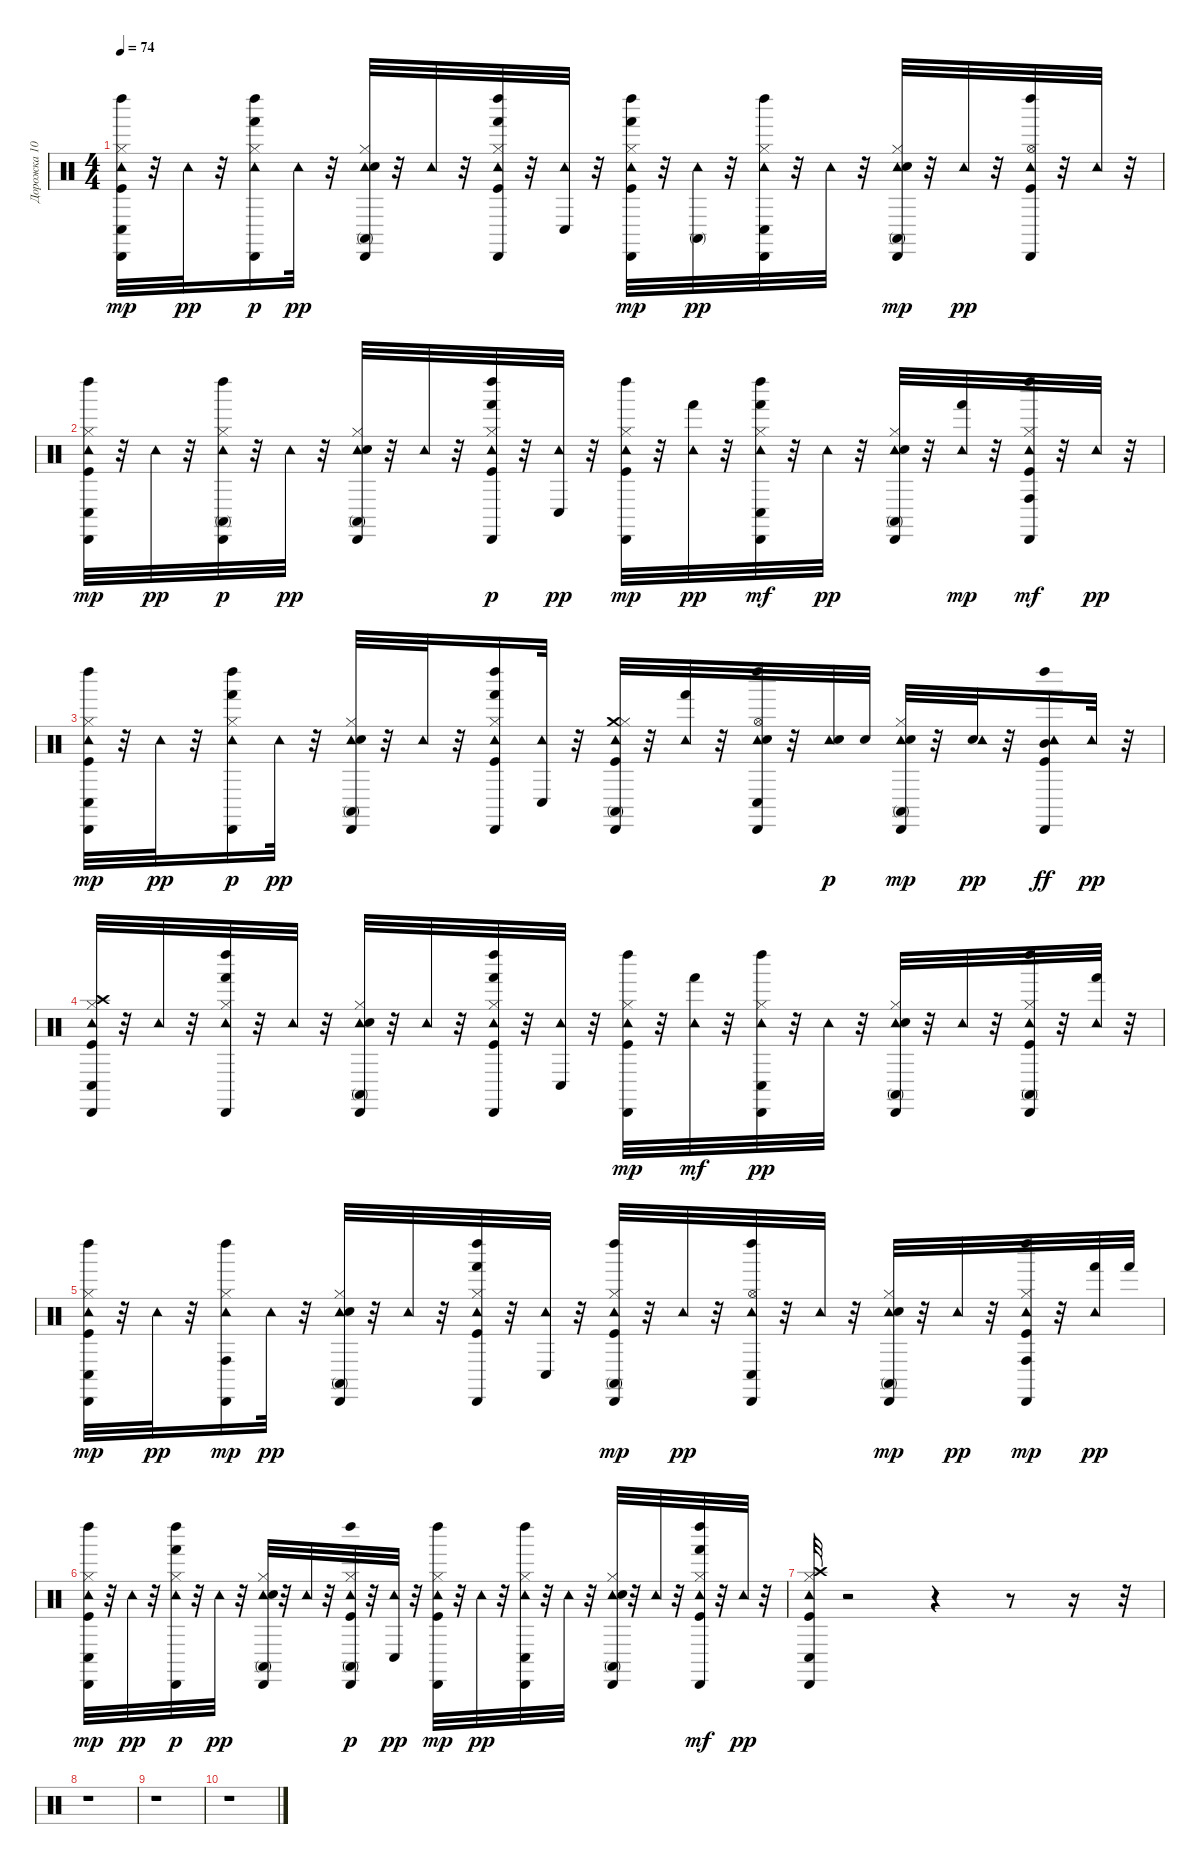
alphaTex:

\track ("Дорожка 10" "Дорожка 10") {instrument percussion}
\staff {score}
\articulation defaults
\ts (4 4)
\tempo 74
\clef neutral
\ks c
("Conga low (hit)" "Tambourine (hit)" "Kick (hit)" "Hi-Hat (closed)" "Cabasa (hit)" "Left Maraca (hit)").32{dy mp} r.32 "Tambourine (hit)".32{dy pp} r.32 ("Hi-Hat (closed)" "Tambourine (hit)" "Cabasa (hit)" "Left Maraca (hit)" "Hand (hit)").16{dy p} "Tambourine (hit)".32{dy pp} r.32 ("Tambourine (hit)" "Electric Snare (hit)" "Hi-Hat (closed)" "Conga high (mute)" "Cabasa (hit)").32 r.32 "Tambourine (hit)".32 r.32 ("Kick (hit)" "Hi-Hat (closed)" "Tambourine (hit)" "Cabasa (hit)" "Left Maraca (hit)" "Hand (hit)").32 r.32 ("Conga low (hit)" "Tambourine (hit)").32 r.32 ("Hand (hit)" "Kick (hit)" "Hi-Hat (closed)" "Tambourine (hit)" "Cabasa (hit)" "Left Maraca (hit)").32{dy mp} r.32 ("Tambourine (hit)" "Conga high (mute)").32{dy pp} r.32 ("Conga low (hit)" "Hi-Hat (closed)" "Tambourine (hit)" "Cabasa (hit)" "Left Maraca (hit)").32 r.32 "Tambourine (hit)".32 r.32 ("Tambourine (hit)" "Electric Snare (hit)" "Hi-Hat (closed)" "Cabasa (hit)" "Conga high (mute)").32{dy mp} r.32 "Tambourine (hit)".32{dy pp} r.32 ("Kick (hit)" "Hi-Hat (open)" "Tambourine (hit)" "Cabasa (hit)" "Left Maraca (hit)").32 r.32 "Tambourine (hit)".32 r.32 |
("Conga low (hit)" "Tambourine (hit)" "Kick (hit)" "Hi-Hat (closed)" "Cabasa (hit)" "Left Maraca (hit)").32{dy mp} r.32 "Tambourine (hit)".32{dy pp} r.32 ("Hi-Hat (closed)" "Tambourine (hit)" "Cabasa (hit)" "Left Maraca (hit)" "Conga high (mute)").32{dy p} r.32 "Tambourine (hit)".32{dy pp} r.32 ("Tambourine (hit)" "Electric Snare (hit)" "Hi-Hat (closed)" "Conga high (mute)" "Cabasa (hit)").32 r.32 "Tambourine (hit)".32 r.32 ("Kick (hit)" "Hi-Hat (closed)" "Tambourine (hit)" "Cabasa (hit)" "Left Maraca (hit)" "Hand (hit)").32{dy p} r.32 ("Conga low (hit)" "Tambourine (hit)").32{dy pp} r.32 ("Kick (hit)" "Hi-Hat (closed)" "Tambourine (hit)" "Cabasa (hit)" "Left Maraca (hit)").32{dy mp} r.32 ("Tambourine (hit)" "Hand (hit)").32{dy pp} r.32 ("Conga low (hit)" "Hi-Hat (closed)" "Tambourine (hit)" "Cabasa (hit)" "Left Maraca (hit)" "Hand (hit)").32{dy mf} r.32 "Tambourine (hit)".32{dy pp} r.32 ("Conga high (mute)" "Tambourine (hit)" "Electric Snare (hit)" "Hi-Hat (closed)" "Cabasa (hit)").32 r.32 ("Tambourine (hit)" "Hand (hit)").32{dy mp} r.32 ("Kick (hit)" "Hi-Hat (closed)" "Tambourine (hit)" "Cabasa (hit)" "Left Maraca (hit)" "Conga high (hit)").32{dy mf} r.32 "Tambourine (hit)".32{dy pp} r.32 |
("Conga low (hit)" "Tambourine (hit)" "Kick (hit)" "Hi-Hat (closed)" "Cabasa (hit)" "Left Maraca (hit)").32{dy mp} r.32 "Tambourine (hit)".32{dy pp} r.32 ("Hi-Hat (closed)" "Tambourine (hit)" "Cabasa (hit)" "Left Maraca (hit)" "Hand (hit)").16{dy p} "Tambourine (hit)".32{dy pp} r.32 ("Tambourine (hit)" "Electric Snare (hit)" "Hi-Hat (closed)" "Conga high (mute)" "Cabasa (hit)").32 r.32 "Tambourine (hit)".32 r.32 ("Kick (hit)" "Hi-Hat (closed)" "Tambourine (hit)" "Cabasa (hit)" "Left Maraca (hit)" "Hand (hit)").16 ("Conga low (hit)" "Tambourine (hit)").32 r.32 ("Crash medium (hit)" "Kick (hit)" "Hi-Hat (closed)" "Tambourine (hit)" "Conga high (mute)" "Cabasa (hit)").32 r.32 ("Tambourine (hit)" "Hand (hit)").32 r.32 ("Conga low (hit)" "Hi-Hat (open)" "Tambourine (hit)" "Cabasa (hit)" "Left Maraca (hit)" "Electric Snare (hit)").32 r.32 ("Tambourine (hit)" "Electric Snare (hit)").32{dy p} "Electric Snare (hit)".32 ("Tambourine (hit)" "Electric Snare (hit)" "Hi-Hat (closed)" "Cabasa (hit)" "Conga high (mute)").32{dy mp} r.32 ("Electric Snare (hit)" "Tambourine (hit)").32{dy pp} r.32 ("Kick (hit)" "Tambourine (hit)" "Cabasa (hit)" "Left Maraca (hit)" "Mid Tom (hit)").16{dy ff} "Tambourine (hit)".32{dy pp} r.32 |
("Crash high (hit)" "Conga low (hit)" "Tambourine (hit)" "Kick (hit)" "Hi-Hat (closed)" "Cabasa (hit)").32 r.32 "Tambourine (hit)".32 r.32 ("Hand (hit)" "Hi-Hat (closed)" "Tambourine (hit)" "Cabasa (hit)" "Left Maraca (hit)").32 r.32 "Tambourine (hit)".32 r.32 ("Conga high (mute)" "Tambourine (hit)" "Electric Snare (hit)" "Hi-Hat (closed)" "Cabasa (hit)").32 r.32 "Tambourine (hit)".32 r.32 ("Hand (hit)" "Kick (hit)" "Hi-Hat (closed)" "Tambourine (hit)" "Cabasa (hit)" "Left Maraca (hit)").32 r.32 ("Conga low (hit)" "Tambourine (hit)").32 r.32 ("Kick (hit)" "Hi-Hat (closed)" "Tambourine (hit)" "Cabasa (hit)" "Left Maraca (hit)").32{dy mp} r.32 ("Tambourine (hit)" "Hand (hit)").32{dy mf} r.32 ("Conga low (hit)" "Hi-Hat (closed)" "Tambourine (hit)" "Cabasa (hit)" "Left Maraca (hit)").32{dy pp} r.32 "Tambourine (hit)".32 r.32 ("Conga high (mute)" "Tambourine (hit)" "Electric Snare (hit)" "Hi-Hat (closed)" "Cabasa (hit)").32 r.32 "Tambourine (hit)".32 r.32 ("Conga high (mute)" "Kick (hit)" "Hi-Hat (closed)" "Tambourine (hit)" "Cabasa (hit)" "Left Maraca (hit)").32 r.32 ("Hand (hit)" "Tambourine (hit)").32 r.32 |
("Conga low (hit)" "Tambourine (hit)" "Kick (hit)" "Hi-Hat (closed)" "Cabasa (hit)" "Left Maraca (hit)").32{dy mp} r.32 "Tambourine (hit)".32{dy pp} r.32 ("Hi-Hat (closed)" "Tambourine (hit)" "Cabasa (hit)" "Left Maraca (hit)" "Conga high (hit)").16{dy mp} "Tambourine (hit)".32{dy pp} r.32 ("Conga high (mute)" "Tambourine (hit)" "Electric Snare (hit)" "Hi-Hat (closed)" "Cabasa (hit)").32 r.32 "Tambourine (hit)".32 r.32 ("Hand (hit)" "Kick (hit)" "Hi-Hat (closed)" "Tambourine (hit)" "Cabasa (hit)" "Left Maraca (hit)").32 r.32 ("Conga low (hit)" "Tambourine (hit)").32 r.32 ("Kick (hit)" "Hi-Hat (closed)" "Tambourine (hit)" "Conga high (mute)" "Cabasa (hit)" "Left Maraca (hit)").32{dy mp} r.32 "Tambourine (hit)".32{dy pp} r.32 ("Conga low (hit)" "Hi-Hat (open)" "Tambourine (hit)" "Cabasa (hit)" "Left Maraca (hit)").32 r.32 "Tambourine (hit)".32 r.32 ("Tambourine (hit)" "Electric Snare (hit)" "Hi-Hat (closed)" "Cabasa (hit)" "Conga high (mute)").32{dy mp} r.32 "Tambourine (hit)".32{dy pp} r.32 ("Kick (hit)" "Hi-Hat (closed)" "Tambourine (hit)" "Cabasa (hit)" "Left Maraca (hit)" "Conga high (hit)").32{dy mp} r.32 ("Hand (hit)" "Tambourine (hit)").32{dy pp} "Hand (hit)".32 |
("Conga low (hit)" "Tambourine (hit)" "Kick (hit)" "Hi-Hat (closed)" "Cabasa (hit)" "Left Maraca (hit)").32{dy mp} r.32 "Tambourine (hit)".32{dy pp} r.32 ("Hi-Hat (closed)" "Tambourine (hit)" "Cabasa (hit)" "Left Maraca (hit)" "Hand (hit)").32{dy p} r.32 "Tambourine (hit)".32{dy pp} r.32 ("Tambourine (hit)" "Electric Snare (hit)" "Hi-Hat (closed)" "Conga high (mute)" "Cabasa (hit)").32 r.32 "Tambourine (hit)".32 r.32 ("Kick (hit)" "Hi-Hat (closed)" "Tambourine (hit)" "Cabasa (hit)" "Left Maraca (hit)" "Conga high (mute)").32{dy p} r.32 ("Conga low (hit)" "Tambourine (hit)").32{dy pp} r.32 ("Kick (hit)" "Hi-Hat (closed)" "Tambourine (hit)" "Cabasa (hit)" "Left Maraca (hit)").32{dy mp} r.32 "Tambourine (hit)".32{dy pp} r.32 ("Conga low (hit)" "Hi-Hat (closed)" "Tambourine (hit)" "Cabasa (hit)" "Left Maraca (hit)").32 r.32 "Tambourine (hit)".32 r.32 ("Conga high (mute)" "Tambourine (hit)" "Electric Snare (hit)" "Hi-Hat (closed)" "Cabasa (hit)").32 r.32 "Tambourine (hit)".32 r.32 ("Kick (hit)" "Hi-Hat (closed)" "Tambourine (hit)" "Cabasa (hit)" "Left Maraca (hit)" "Hand (hit)").32{dy mf} r.32 "Tambourine (hit)".32{dy pp} r.32 |
("Crash high (hit)" "Conga low (hit)" "Tambourine (hit)" "Kick (hit)" "Hi-Hat (closed)" "Cabasa (hit)").32 r.2 r.4 r.8 r.16 r.32 |
r.1 |
r.1 |
r.1
